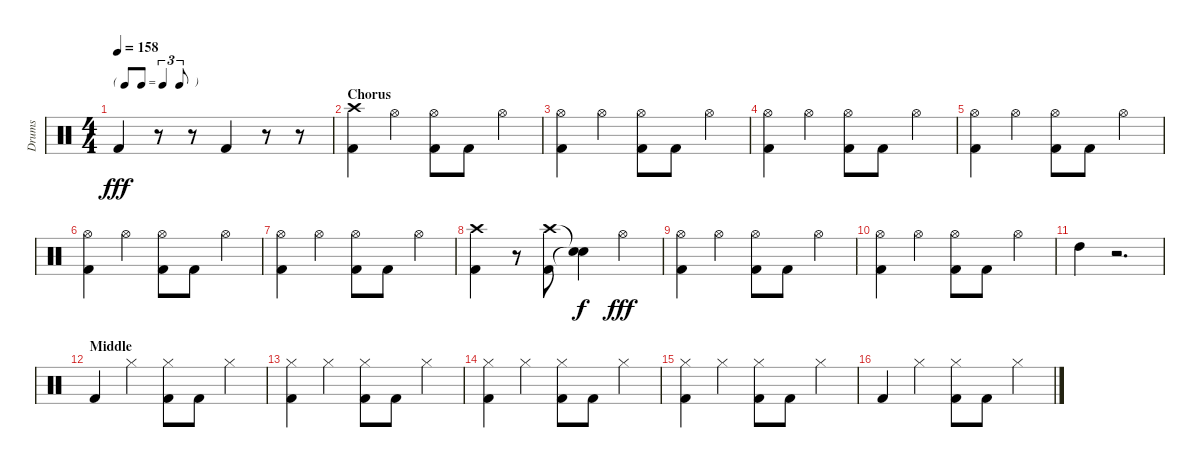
\track ("Drums" "Drums") {instrument percussion}
\staff {score}
\articulation defaults
\ts (4 4)
\tf triplet8th
\tempo 158
\clef neutral
\ks c "Kick (hit) 2".4{dy fff}
r.8 r.8 "Kick (hit) 2".4 r.8 r.8 |
\section ("" "Chorus")
("Crash high (hit)" "Kick (hit) 2").4 "Hi-Hat (open)".4 ("Hi-Hat (open)" "Kick (hit) 2").8 "Kick (hit) 2".8 "Hi-Hat (open)".4 |
("Hi-Hat (open)" "Kick (hit) 2").4 "Hi-Hat (open)".4 ("Hi-Hat (open)" "Kick (hit) 2").8 "Kick (hit) 2".8 "Hi-Hat (open)".4 |
("Hi-Hat (open)" "Kick (hit) 2").4 "Hi-Hat (open)".4 ("Hi-Hat (open)" "Kick (hit) 2").8 "Kick (hit) 2".8 "Hi-Hat (open)".4 |
("Hi-Hat (open)" "Kick (hit) 2").4 "Hi-Hat (open)".4 ("Hi-Hat (open)" "Kick (hit) 2").8 "Kick (hit) 2".8 "Hi-Hat (open)".4 |
("Hi-Hat (open)" "Kick (hit) 2").4 "Hi-Hat (open)".4 ("Hi-Hat (open)" "Kick (hit) 2").8 "Kick (hit) 2".8 "Hi-Hat (open)".4 |
("Hi-Hat (open)" "Kick (hit) 2").4 "Hi-Hat (open)".4 ("Hi-Hat (open)" "Kick (hit) 2").8 "Kick (hit) 2".8 "Hi-Hat (open)".4 |
("Crash high (hit)" "Kick (hit) 2").4 r.8 ("Crash high (hit)" "Kick (hit) 2").8 ("Snare (hit)"{t} "Snare (hit)"{t}).4{dy f} "Hi-Hat (open)".4{dy fff} |
("Hi-Hat (open)" "Kick (hit) 2").4 "Hi-Hat (open)".4 ("Hi-Hat (open)" "Kick (hit) 2").8 "Kick (hit) 2".8 "Hi-Hat (open)".4 |
("Hi-Hat (open)" "Kick (hit) 2").4 "Hi-Hat (open)".4 ("Hi-Hat (open)" "Kick (hit) 2").8 "Kick (hit) 2".8 "Hi-Hat (open)".4 |
"High Tom (hit)".4 r.2{d} |
\section ("" "Middle")
"Kick (hit) 2".4 "Hi-Hat (closed)".4 ("Hi-Hat (closed)" "Kick (hit) 2").8 "Kick (hit) 2".8 "Hi-Hat (closed)".4 |
("Hi-Hat (closed)" "Kick (hit) 2").4 "Hi-Hat (closed)".4 ("Hi-Hat (closed)" "Kick (hit) 2").8 "Kick (hit) 2".8 "Hi-Hat (closed)".4 |
("Hi-Hat (closed)" "Kick (hit) 2").4 "Hi-Hat (closed)".4 ("Hi-Hat (closed)" "Kick (hit) 2").8 "Kick (hit) 2".8 "Hi-Hat (closed)".4 |
("Hi-Hat (closed)" "Kick (hit) 2").4 "Hi-Hat (closed)".4 ("Hi-Hat (closed)" "Kick (hit) 2").8 "Kick (hit) 2".8 "Hi-Hat (closed)".4 |
"Kick (hit) 2".4 "Hi-Hat (closed)".4 ("Hi-Hat (closed)" "Kick (hit) 2").8 "Kick (hit) 2".8 "Hi-Hat (closed)".4
